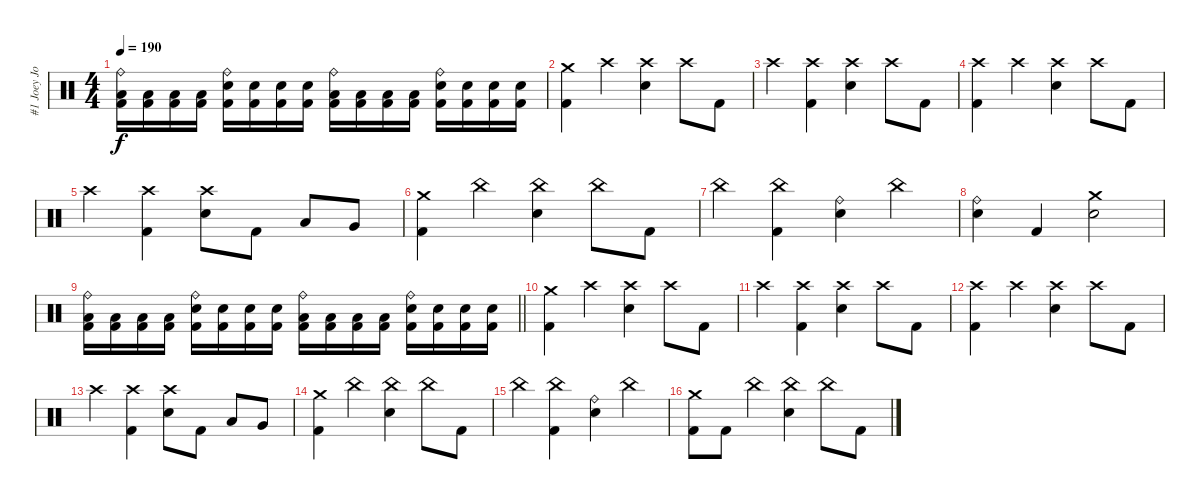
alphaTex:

\track ("#1 Joey Jordison" "#1 Joey Jo") {instrument percussion}
\staff {score}
\articulation defaults
\ts (4 4)
\tempo 190
\clef neutral
\ks c
("Ride (bell)" "Low Floor Tom (hit)" "Kick (hit) 2").16{dy f} ("Low Floor Tom (hit)" "Kick (hit) 2").16 ("Low Floor Tom (hit)" "Kick (hit) 2").16 ("Low Floor Tom (hit)" "Kick (hit) 2").16 ("Ride (bell)" "Electric Snare (hit)" "Kick (hit) 2").16 ("Electric Snare (hit)" "Kick (hit) 2").16 ("Electric Snare (hit)" "Kick (hit) 2").16 ("Electric Snare (hit)" "Kick (hit) 2").16 ("Ride (bell)" "Low Floor Tom (hit)" "Kick (hit) 2").16 ("Low Floor Tom (hit)" "Kick (hit) 2").16 ("Low Floor Tom (hit)" "Kick (hit) 2").16 ("Low Floor Tom (hit)" "Kick (hit) 2").16 ("Ride (bell)" "Electric Snare (hit)" "Kick (hit) 2").16 ("Electric Snare (hit)" "Kick (hit) 2").16 ("Electric Snare (hit)" "Kick (hit) 2").16 ("Electric Snare (hit)" "Kick (hit) 2").16 |
("Crash medium (hit)" "Kick (hit) 2").4 "Crash high (hit)".4 ("Crash high (hit)" "Electric Snare (hit)").4 "Crash high (hit)".8 "Kick (hit) 2".8 |
"Crash high (hit)".4 ("Crash high (hit)" "Kick (hit) 2").4 ("Crash high (hit)" "Electric Snare (hit)").4 "Crash high (hit)".8 "Kick (hit) 2".8 |
("Crash high (hit)" "Kick (hit) 2").4 "Crash high (hit)".4 ("Crash high (hit)" "Electric Snare (hit)").4 "Crash high (hit)".8 "Kick (hit) 2".8 |
"Crash high (hit)".4 ("Crash high (hit)" "Kick (hit) 2").4 ("Crash high (hit)" "Electric Snare (hit)").8 "Kick (hit) 2".8 "Low Tom (hit)".8 "Very Low Tom (hit)".8 |
("Crash medium (hit)" "Kick (hit) 2").4 "China (hit)".4 ("China (hit)" "Electric Snare (hit)").4 "China (hit)".8 "Kick (hit) 2".8 |
"China (hit)".4 ("China (hit)" "Kick (hit) 2").4 ("Ride (bell)" "Electric Snare (hit)").4 "China (hit)".4 |
("Ride (bell)" "Electric Snare (hit)").4 "Kick (hit) 2".4 ("Crash medium (hit)" "Electric Snare (hit)").2 |
\barLineRight lightlight
("Ride (bell)" "Low Floor Tom (hit)" "Kick (hit) 2").16 ("Low Floor Tom (hit)" "Kick (hit) 2").16 ("Low Floor Tom (hit)" "Kick (hit) 2").16 ("Low Floor Tom (hit)" "Kick (hit) 2").16 ("Ride (bell)" "Electric Snare (hit)" "Kick (hit) 2").16 ("Electric Snare (hit)" "Kick (hit) 2").16 ("Electric Snare (hit)" "Kick (hit) 2").16 ("Electric Snare (hit)" "Kick (hit) 2").16 ("Ride (bell)" "Low Floor Tom (hit)" "Kick (hit) 2").16 ("Low Floor Tom (hit)" "Kick (hit) 2").16 ("Low Floor Tom (hit)" "Kick (hit) 2").16 ("Low Floor Tom (hit)" "Kick (hit) 2").16 ("Ride (bell)" "Electric Snare (hit)" "Kick (hit) 2").16 ("Electric Snare (hit)" "Kick (hit) 2").16 ("Electric Snare (hit)" "Kick (hit) 2").16 ("Electric Snare (hit)" "Kick (hit) 2").16 |
("Crash medium (hit)" "Kick (hit) 2").4 "Crash high (hit)".4 ("Crash high (hit)" "Electric Snare (hit)").4 "Crash high (hit)".8 "Kick (hit) 2".8 |
"Crash high (hit)".4 ("Crash high (hit)" "Kick (hit) 2").4 ("Crash high (hit)" "Electric Snare (hit)").4 "Crash high (hit)".8 "Kick (hit) 2".8 |
("Crash high (hit)" "Kick (hit) 2").4 "Crash high (hit)".4 ("Crash high (hit)" "Electric Snare (hit)").4 "Crash high (hit)".8 "Kick (hit) 2".8 |
"Crash high (hit)".4 ("Crash high (hit)" "Kick (hit) 2").4 ("Crash high (hit)" "Electric Snare (hit)").8 "Kick (hit) 2".8 "Low Tom (hit)".8 "Very Low Tom (hit)".8 |
("Crash medium (hit)" "Kick (hit) 2").4 "China (hit)".4 ("China (hit)" "Electric Snare (hit)").4 "China (hit)".8 "Kick (hit) 2".8 |
"China (hit)".4 ("China (hit)" "Kick (hit) 2").4 ("Ride (bell)" "Electric Snare (hit)").4 "China (hit)".4 |
("Crash medium (hit)" "Kick (hit) 2").8 "Kick (hit) 2".8 "China (hit)".4 ("China (hit)" "Electric Snare (hit)").4 "China (hit)".8 "Kick (hit) 2".8
